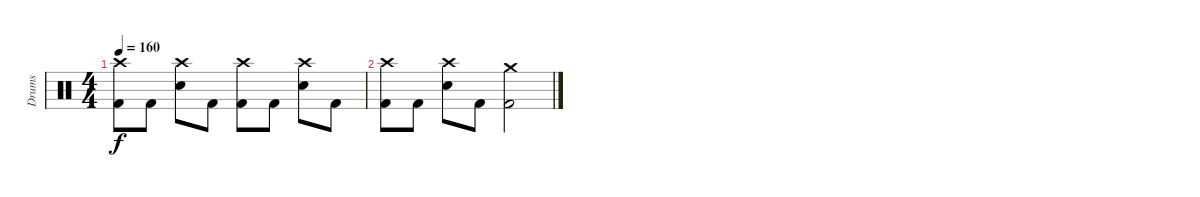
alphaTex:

\track ("Drums" "Drums") {instrument percussion}
\staff {score}
\articulation defaults
\ts (4 4)
\tempo 160
\clef neutral
\ks c
("Crash high (hit)" "Kick (hit) 2").8{dy f} "Kick (hit) 2".8 ("Crash high (hit)" "Electric Snare (hit)").8 "Kick (hit) 2".8 ("Crash high (hit)" "Kick (hit) 2").8 "Kick (hit) 2".8 ("Crash high (hit)" "Electric Snare (hit)").8 "Kick (hit) 2".8 |
("Crash high (hit)" "Kick (hit) 2").8 "Kick (hit) 2".8 ("Crash high (hit)" "Electric Snare (hit)").8 "Kick (hit) 2".8 ("Crash medium (hit)" "Kick (hit) 2").2
